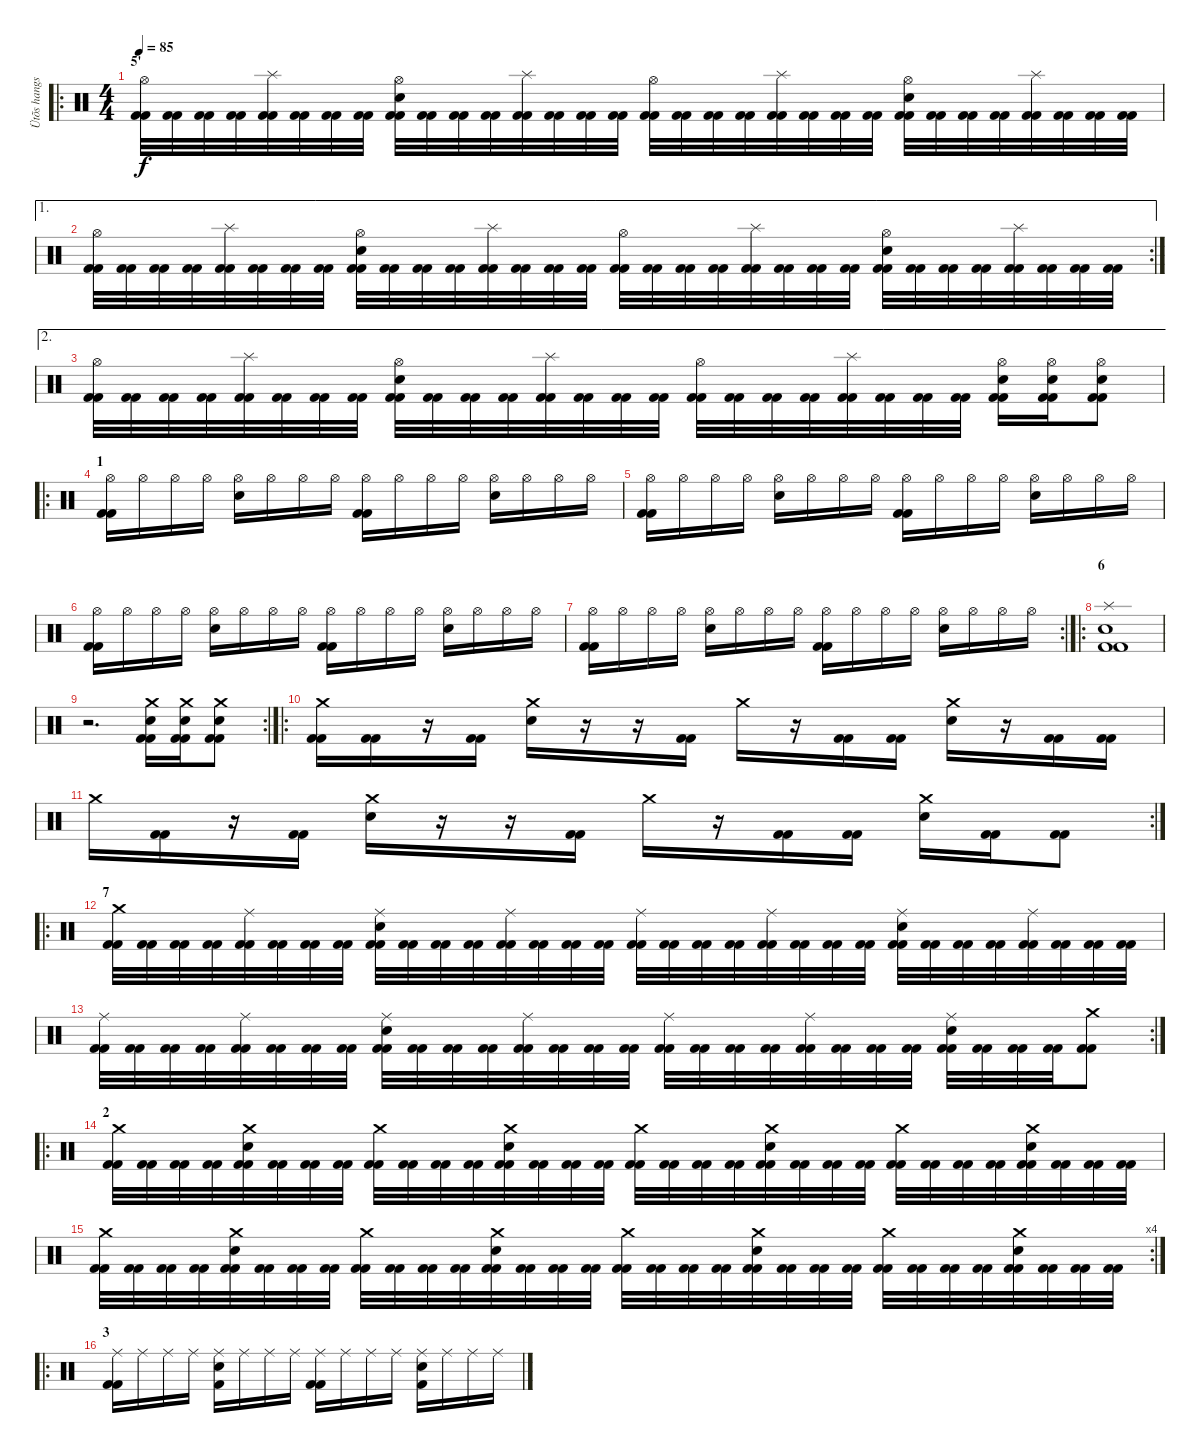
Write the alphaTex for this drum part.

\track ("Ütõs hangszer" "Ütõs hangs") {instrument percussion}
\staff {score}
\articulation defaults
\ro
\ts (4 4)
\section ("" "5'")
\tempo 85
\clef neutral
\ks c
("Hi-Hat (open)" "Kick (hit) 2" "Kick (hit) 2").32{dy f} ("Kick (hit) 2" "Kick (hit) 2").32 ("Kick (hit) 2" "Kick (hit) 2").32 ("Kick (hit) 2" "Kick (hit) 2").32 ("Splash (hit)" "Kick (hit) 2" "Kick (hit) 2").32 ("Kick (hit) 2" "Kick (hit) 2").32 ("Kick (hit) 2" "Kick (hit) 2").32 ("Kick (hit) 2" "Kick (hit) 2").32 ("Snare (hit) 2" "Hi-Hat (open)" "Kick (hit) 2" "Kick (hit) 2").32 ("Kick (hit) 2" "Kick (hit) 2").32 ("Kick (hit) 2" "Kick (hit) 2").32 ("Kick (hit) 2" "Kick (hit) 2").32 ("Splash (hit)" "Kick (hit) 2" "Kick (hit) 2").32 ("Kick (hit) 2" "Kick (hit) 2").32 ("Kick (hit) 2" "Kick (hit) 2").32 ("Kick (hit) 2" "Kick (hit) 2").32 ("Hi-Hat (open)" "Kick (hit) 2" "Kick (hit) 2").32 ("Kick (hit) 2" "Kick (hit) 2").32 ("Kick (hit) 2" "Kick (hit) 2").32 ("Kick (hit) 2" "Kick (hit) 2").32 ("Splash (hit)" "Kick (hit) 2" "Kick (hit) 2").32 ("Kick (hit) 2" "Kick (hit) 2").32 ("Kick (hit) 2" "Kick (hit) 2").32 ("Kick (hit) 2" "Kick (hit) 2").32 ("Snare (hit) 2" "Hi-Hat (open)" "Kick (hit) 2" "Kick (hit) 2").32 ("Kick (hit) 2" "Kick (hit) 2").32 ("Kick (hit) 2" "Kick (hit) 2").32 ("Kick (hit) 2" "Kick (hit) 2").32 ("Splash (hit)" "Kick (hit) 2" "Kick (hit) 2").32 ("Kick (hit) 2" "Kick (hit) 2").32 ("Kick (hit) 2" "Kick (hit) 2").32 ("Kick (hit) 2" "Kick (hit) 2").32 |
\ae 1
\rc 2
("Hi-Hat (open)" "Kick (hit) 2" "Kick (hit) 2").32 ("Kick (hit) 2" "Kick (hit) 2").32 ("Kick (hit) 2" "Kick (hit) 2").32 ("Kick (hit) 2" "Kick (hit) 2").32 ("Splash (hit)" "Kick (hit) 2" "Kick (hit) 2").32 ("Kick (hit) 2" "Kick (hit) 2").32 ("Kick (hit) 2" "Kick (hit) 2").32 ("Kick (hit) 2" "Kick (hit) 2").32 ("Snare (hit) 2" "Hi-Hat (open)" "Kick (hit) 2" "Kick (hit) 2").32 ("Kick (hit) 2" "Kick (hit) 2").32 ("Kick (hit) 2" "Kick (hit) 2").32 ("Kick (hit) 2" "Kick (hit) 2").32 ("Splash (hit)" "Kick (hit) 2" "Kick (hit) 2").32 ("Kick (hit) 2" "Kick (hit) 2").32 ("Kick (hit) 2" "Kick (hit) 2").32 ("Kick (hit) 2" "Kick (hit) 2").32 ("Hi-Hat (open)" "Kick (hit) 2" "Kick (hit) 2").32 ("Kick (hit) 2" "Kick (hit) 2").32 ("Kick (hit) 2" "Kick (hit) 2").32 ("Kick (hit) 2" "Kick (hit) 2").32 ("Splash (hit)" "Kick (hit) 2" "Kick (hit) 2").32 ("Kick (hit) 2" "Kick (hit) 2").32 ("Kick (hit) 2" "Kick (hit) 2").32 ("Kick (hit) 2" "Kick (hit) 2").32 ("Snare (hit) 2" "Hi-Hat (open)" "Kick (hit) 2" "Kick (hit) 2").32 ("Kick (hit) 2" "Kick (hit) 2").32 ("Kick (hit) 2" "Kick (hit) 2").32 ("Kick (hit) 2" "Kick (hit) 2").32 ("Splash (hit)" "Kick (hit) 2" "Kick (hit) 2").32 ("Kick (hit) 2" "Kick (hit) 2").32 ("Kick (hit) 2" "Kick (hit) 2").32 ("Kick (hit) 2" "Kick (hit) 2").32 |
\ae 2
("Hi-Hat (open)" "Kick (hit) 2" "Kick (hit) 2").32 ("Kick (hit) 2" "Kick (hit) 2").32 ("Kick (hit) 2" "Kick (hit) 2").32 ("Kick (hit) 2" "Kick (hit) 2").32 ("Splash (hit)" "Kick (hit) 2" "Kick (hit) 2").32 ("Kick (hit) 2" "Kick (hit) 2").32 ("Kick (hit) 2" "Kick (hit) 2").32 ("Kick (hit) 2" "Kick (hit) 2").32 ("Snare (hit) 2" "Hi-Hat (open)" "Kick (hit) 2" "Kick (hit) 2").32 ("Kick (hit) 2" "Kick (hit) 2").32 ("Kick (hit) 2" "Kick (hit) 2").32 ("Kick (hit) 2" "Kick (hit) 2").32 ("Splash (hit)" "Kick (hit) 2" "Kick (hit) 2").32 ("Kick (hit) 2" "Kick (hit) 2").32 ("Kick (hit) 2" "Kick (hit) 2").32 ("Kick (hit) 2" "Kick (hit) 2").32 ("Hi-Hat (open)" "Kick (hit) 2" "Kick (hit) 2").32 ("Kick (hit) 2" "Kick (hit) 2").32 ("Kick (hit) 2" "Kick (hit) 2").32 ("Kick (hit) 2" "Kick (hit) 2").32 ("Splash (hit)" "Kick (hit) 2" "Kick (hit) 2").32 ("Kick (hit) 2" "Kick (hit) 2").32 ("Kick (hit) 2" "Kick (hit) 2").32 ("Kick (hit) 2" "Kick (hit) 2").32 ("Snare (hit) 2" "Hi-Hat (open)" "Kick (hit) 2" "Kick (hit) 2").16 ("Snare (hit) 2" "Hi-Hat (open)" "Kick (hit) 2" "Kick (hit) 2").16 ("Snare (hit) 2" "Hi-Hat (open)" "Kick (hit) 2" "Kick (hit) 2").8 |
\ro
\section ("" "1")
("Kick (hit) 2" "Kick (hit) 2" "Hi-Hat (open)").16 "Hi-Hat (open)".16 "Hi-Hat (open)".16 "Hi-Hat (open)".16 ("Snare (hit) 2" "Hi-Hat (open)").16 "Hi-Hat (open)".16 "Hi-Hat (open)".16 "Hi-Hat (open)".16 ("Kick (hit) 2" "Kick (hit) 2" "Hi-Hat (open)").16 "Hi-Hat (open)".16 "Hi-Hat (open)".16 "Hi-Hat (open)".16 ("Snare (hit) 2" "Hi-Hat (open)").16 "Hi-Hat (open)".16 "Hi-Hat (open)".16 "Hi-Hat (open)".16 |
("Kick (hit) 2" "Kick (hit) 2" "Hi-Hat (open)").16 "Hi-Hat (open)".16 "Hi-Hat (open)".16 "Hi-Hat (open)".16 ("Snare (hit) 2" "Hi-Hat (open)").16 "Hi-Hat (open)".16 "Hi-Hat (open)".16 "Hi-Hat (open)".16 ("Kick (hit) 2" "Kick (hit) 2" "Hi-Hat (open)").16 "Hi-Hat (open)".16 "Hi-Hat (open)".16 "Hi-Hat (open)".16 ("Snare (hit) 2" "Hi-Hat (open)").16 "Hi-Hat (open)".16 "Hi-Hat (open)".16 "Hi-Hat (open)".16 |
("Kick (hit) 2" "Kick (hit) 2" "Hi-Hat (open)").16 "Hi-Hat (open)".16 "Hi-Hat (open)".16 "Hi-Hat (open)".16 ("Snare (hit) 2" "Hi-Hat (open)").16 "Hi-Hat (open)".16 "Hi-Hat (open)".16 "Hi-Hat (open)".16 ("Kick (hit) 2" "Kick (hit) 2" "Hi-Hat (open)").16 "Hi-Hat (open)".16 "Hi-Hat (open)".16 "Hi-Hat (open)".16 ("Snare (hit) 2" "Hi-Hat (open)").16 "Hi-Hat (open)".16 "Hi-Hat (open)".16 "Hi-Hat (open)".16 |
\rc 2
("Kick (hit) 2" "Kick (hit) 2" "Hi-Hat (open)").16 "Hi-Hat (open)".16 "Hi-Hat (open)".16 "Hi-Hat (open)".16 ("Snare (hit) 2" "Hi-Hat (open)").16 "Hi-Hat (open)".16 "Hi-Hat (open)".16 "Hi-Hat (open)".16 ("Kick (hit) 2" "Kick (hit) 2" "Hi-Hat (open)").16 "Hi-Hat (open)".16 "Hi-Hat (open)".16 "Hi-Hat (open)".16 ("Snare (hit) 2" "Hi-Hat (open)").16 "Hi-Hat (open)".16 "Hi-Hat (open)".16 "Hi-Hat (open)".16 |
\ro
\section ("" "6")
("Splash (hit)" "Snare (hit) 2" "Kick (hit) 2" "Kick (hit) 2").1 |
\rc 2
r.2{d} ("Crash medium (hit)" "Snare (hit) 2" "Kick (hit) 2" "Kick (hit) 2").16 ("Crash medium (hit)" "Snare (hit) 2" "Kick (hit) 2" "Kick (hit) 2").16 ("Crash medium (hit)" "Snare (hit) 2" "Kick (hit) 2" "Kick (hit) 2").8 |
\ro
("Crash medium (hit)" "Kick (hit) 2" "Kick (hit) 2").16 ("Kick (hit) 2" "Kick (hit) 2").16 r.16 ("Kick (hit) 2" "Kick (hit) 2").16 ("Crash medium (hit)" "Snare (hit) 2").16 r.16 r.16 ("Kick (hit) 2" "Kick (hit) 2").16 "Crash medium (hit)".16 r.16 ("Kick (hit) 2" "Kick (hit) 2").16 ("Kick (hit) 2" "Kick (hit) 2").16 ("Crash medium (hit)" "Snare (hit) 2").16 r.16 ("Kick (hit) 2" "Kick (hit) 2").16 ("Kick (hit) 2" "Kick (hit) 2").16 |
\rc 2 "Crash medium (hit)".16
("Kick (hit) 2" "Kick (hit) 2").16 r.16 ("Kick (hit) 2" "Kick (hit) 2").16 ("Crash medium (hit)" "Snare (hit) 2").16 r.16 r.16 ("Kick (hit) 2" "Kick (hit) 2").16 "Crash medium (hit)".16 r.16 ("Kick (hit) 2" "Kick (hit) 2").16 ("Kick (hit) 2" "Kick (hit) 2").16 ("Crash medium (hit)" "Snare (hit) 2").16 ("Kick (hit) 2" "Kick (hit) 2").16 ("Kick (hit) 2" "Kick (hit) 2").8 |
\ro
\section ("" "7")
("Crash medium (hit)" "Kick (hit) 2" "Kick (hit) 2").32 ("Kick (hit) 2" "Kick (hit) 2").32 ("Kick (hit) 2" "Kick (hit) 2").32 ("Kick (hit) 2" "Kick (hit) 2").32 ("Ride (middle)" "Kick (hit) 2" "Kick (hit) 2").32 ("Kick (hit) 2" "Kick (hit) 2").32 ("Kick (hit) 2" "Kick (hit) 2").32 ("Kick (hit) 2" "Kick (hit) 2").32 ("Ride (middle)" "Snare (hit) 2" "Kick (hit) 2" "Kick (hit) 2").32 ("Kick (hit) 2" "Kick (hit) 2").32 ("Kick (hit) 2" "Kick (hit) 2").32 ("Kick (hit) 2" "Kick (hit) 2").32 ("Ride (middle)" "Kick (hit) 2" "Kick (hit) 2").32 ("Kick (hit) 2" "Kick (hit) 2").32 ("Kick (hit) 2" "Kick (hit) 2").32 ("Kick (hit) 2" "Kick (hit) 2").32 ("Ride (middle)" "Kick (hit) 2" "Kick (hit) 2").32 ("Kick (hit) 2" "Kick (hit) 2").32 ("Kick (hit) 2" "Kick (hit) 2").32 ("Kick (hit) 2" "Kick (hit) 2").32 ("Ride (middle)" "Kick (hit) 2" "Kick (hit) 2").32 ("Kick (hit) 2" "Kick (hit) 2").32 ("Kick (hit) 2" "Kick (hit) 2").32 ("Kick (hit) 2" "Kick (hit) 2").32 ("Ride (middle)" "Snare (hit) 2" "Kick (hit) 2" "Kick (hit) 2").32 ("Kick (hit) 2" "Kick (hit) 2").32 ("Kick (hit) 2" "Kick (hit) 2").32 ("Kick (hit) 2" "Kick (hit) 2").32 ("Ride (middle)" "Kick (hit) 2" "Kick (hit) 2").32 ("Kick (hit) 2" "Kick (hit) 2").32 ("Kick (hit) 2" "Kick (hit) 2").32 ("Kick (hit) 2" "Kick (hit) 2").32 |
\rc 2
("Ride (middle)" "Kick (hit) 2" "Kick (hit) 2").32 ("Kick (hit) 2" "Kick (hit) 2").32 ("Kick (hit) 2" "Kick (hit) 2").32 ("Kick (hit) 2" "Kick (hit) 2").32 ("Ride (middle)" "Kick (hit) 2" "Kick (hit) 2").32 ("Kick (hit) 2" "Kick (hit) 2").32 ("Kick (hit) 2" "Kick (hit) 2").32 ("Kick (hit) 2" "Kick (hit) 2").32 ("Ride (middle)" "Snare (hit) 2" "Kick (hit) 2" "Kick (hit) 2").32 ("Kick (hit) 2" "Kick (hit) 2").32 ("Kick (hit) 2" "Kick (hit) 2").32 ("Kick (hit) 2" "Kick (hit) 2").32 ("Ride (middle)" "Kick (hit) 2" "Kick (hit) 2").32 ("Kick (hit) 2" "Kick (hit) 2").32 ("Kick (hit) 2" "Kick (hit) 2").32 ("Kick (hit) 2" "Kick (hit) 2").32 ("Ride (middle)" "Kick (hit) 2" "Kick (hit) 2").32 ("Kick (hit) 2" "Kick (hit) 2").32 ("Kick (hit) 2" "Kick (hit) 2").32 ("Kick (hit) 2" "Kick (hit) 2").32 ("Ride (middle)" "Kick (hit) 2" "Kick (hit) 2").32 ("Kick (hit) 2" "Kick (hit) 2").32 ("Kick (hit) 2" "Kick (hit) 2").32 ("Kick (hit) 2" "Kick (hit) 2").32 ("Ride (middle)" "Snare (hit) 2" "Kick (hit) 2" "Kick (hit) 2").32 ("Kick (hit) 2" "Kick (hit) 2").32 ("Kick (hit) 2" "Kick (hit) 2").32 ("Kick (hit) 2" "Kick (hit) 2").32 ("Crash medium (hit)" "Kick (hit) 2" "Kick (hit) 2").8 |
\ro
\section ("" "2")
("Crash medium (hit)" "Kick (hit) 2" "Kick (hit) 2").32 ("Kick (hit) 2" "Kick (hit) 2").32 ("Kick (hit) 2" "Kick (hit) 2").32 ("Kick (hit) 2" "Kick (hit) 2").32 ("Crash medium (hit)" "Snare (hit) 2" "Kick (hit) 2" "Kick (hit) 2").32 ("Kick (hit) 2" "Kick (hit) 2").32 ("Kick (hit) 2" "Kick (hit) 2").32 ("Kick (hit) 2" "Kick (hit) 2").32 ("Crash medium (hit)" "Kick (hit) 2" "Kick (hit) 2").32 ("Kick (hit) 2" "Kick (hit) 2").32 ("Kick (hit) 2" "Kick (hit) 2").32 ("Kick (hit) 2" "Kick (hit) 2").32 ("Crash medium (hit)" "Snare (hit) 2" "Kick (hit) 2" "Kick (hit) 2").32 ("Kick (hit) 2" "Kick (hit) 2").32 ("Kick (hit) 2" "Kick (hit) 2").32 ("Kick (hit) 2" "Kick (hit) 2").32 ("Crash medium (hit)" "Kick (hit) 2" "Kick (hit) 2").32 ("Kick (hit) 2" "Kick (hit) 2").32 ("Kick (hit) 2" "Kick (hit) 2").32 ("Kick (hit) 2" "Kick (hit) 2").32 ("Crash medium (hit)" "Snare (hit) 2" "Kick (hit) 2" "Kick (hit) 2").32 ("Kick (hit) 2" "Kick (hit) 2").32 ("Kick (hit) 2" "Kick (hit) 2").32 ("Kick (hit) 2" "Kick (hit) 2").32 ("Crash medium (hit)" "Kick (hit) 2" "Kick (hit) 2").32 ("Kick (hit) 2" "Kick (hit) 2").32 ("Kick (hit) 2" "Kick (hit) 2").32 ("Kick (hit) 2" "Kick (hit) 2").32 ("Crash medium (hit)" "Snare (hit) 2" "Kick (hit) 2" "Kick (hit) 2").32 ("Kick (hit) 2" "Kick (hit) 2").32 ("Kick (hit) 2" "Kick (hit) 2").32 ("Kick (hit) 2" "Kick (hit) 2").32 |
\rc 4
("Crash medium (hit)" "Kick (hit) 2" "Kick (hit) 2").32 ("Kick (hit) 2" "Kick (hit) 2").32 ("Kick (hit) 2" "Kick (hit) 2").32 ("Kick (hit) 2" "Kick (hit) 2").32 ("Crash medium (hit)" "Snare (hit) 2" "Kick (hit) 2" "Kick (hit) 2").32 ("Kick (hit) 2" "Kick (hit) 2").32 ("Kick (hit) 2" "Kick (hit) 2").32 ("Kick (hit) 2" "Kick (hit) 2").32 ("Crash medium (hit)" "Kick (hit) 2" "Kick (hit) 2").32 ("Kick (hit) 2" "Kick (hit) 2").32 ("Kick (hit) 2" "Kick (hit) 2").32 ("Kick (hit) 2" "Kick (hit) 2").32 ("Crash medium (hit)" "Snare (hit) 2" "Kick (hit) 2" "Kick (hit) 2").32 ("Kick (hit) 2" "Kick (hit) 2").32 ("Kick (hit) 2" "Kick (hit) 2").32 ("Kick (hit) 2" "Kick (hit) 2").32 ("Crash medium (hit)" "Kick (hit) 2" "Kick (hit) 2").32 ("Kick (hit) 2" "Kick (hit) 2").32 ("Kick (hit) 2" "Kick (hit) 2").32 ("Kick (hit) 2" "Kick (hit) 2").32 ("Crash medium (hit)" "Snare (hit) 2" "Kick (hit) 2" "Kick (hit) 2").32 ("Kick (hit) 2" "Kick (hit) 2").32 ("Kick (hit) 2" "Kick (hit) 2").32 ("Kick (hit) 2" "Kick (hit) 2").32 ("Crash medium (hit)" "Kick (hit) 2" "Kick (hit) 2").32 ("Kick (hit) 2" "Kick (hit) 2").32 ("Kick (hit) 2" "Kick (hit) 2").32 ("Kick (hit) 2" "Kick (hit) 2").32 ("Crash medium (hit)" "Snare (hit) 2" "Kick (hit) 2" "Kick (hit) 2").32 ("Kick (hit) 2" "Kick (hit) 2").32 ("Kick (hit) 2" "Kick (hit) 2").32 ("Kick (hit) 2" "Kick (hit) 2").32 |
\ro
\section ("" "3")
("Kick (hit) 2" "Kick (hit) 2" "Ride (middle)").16 "Ride (middle)".16 "Ride (middle)".16 "Ride (middle)".16 ("Snare (hit) 2" "Kick (hit) 2" "Ride (middle)").16 "Ride (middle)".16 "Ride (middle)".16 "Ride (middle)".16 ("Kick (hit) 2" "Kick (hit) 2" "Ride (middle)").16 "Ride (middle)".16 "Ride (middle)".16 "Ride (middle)".16 ("Snare (hit) 2" "Kick (hit) 2" "Ride (middle)").16 "Ride (middle)".16 "Ride (middle)".16 "Ride (middle)".16
